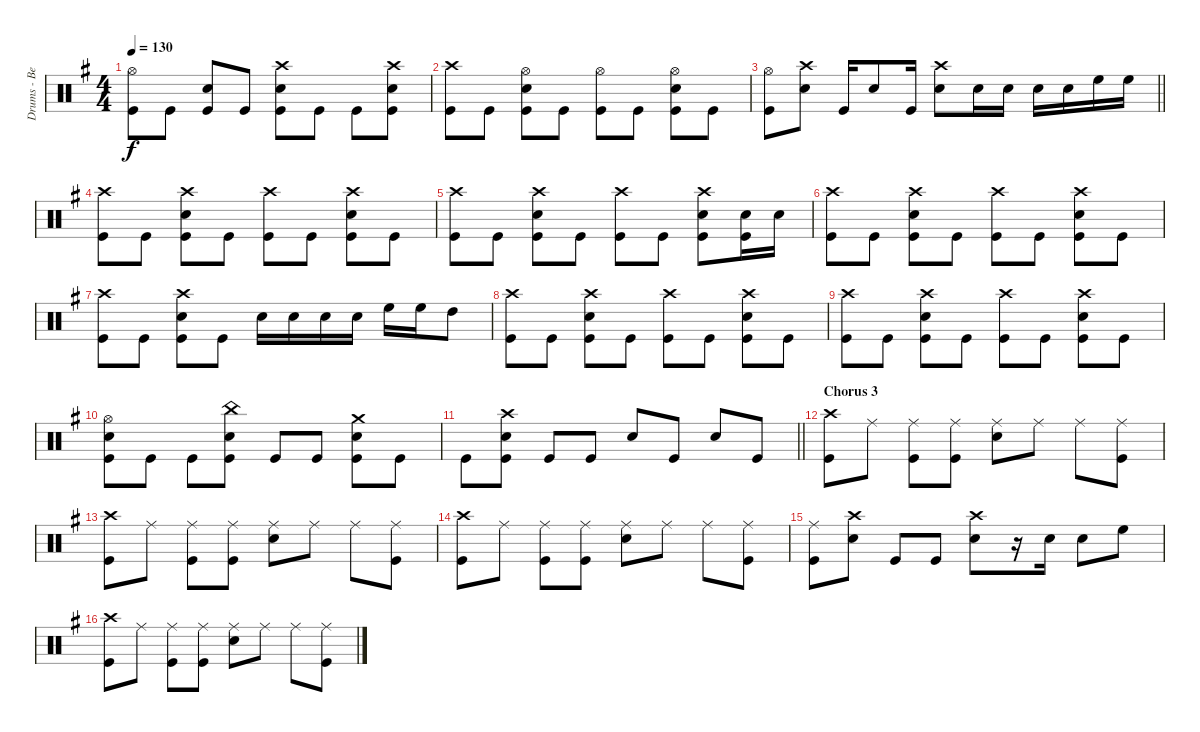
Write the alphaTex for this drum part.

\track ("Drums - Ben Johnston" "Drums - Be") {instrument percussion}
\staff {score}
\articulation defaults
\ts (4 4)
\tempo 130
\clef neutral
\ks g
("Hi-Hat (open)" "Kick (hit)").8{dy f} "Kick (hit)".8 ("Snare (hit) 2" "Kick (hit)").8 "Kick (hit)".8 ("Crash high (hit)" "Snare (hit) 2" "Kick (hit)").8 "Kick (hit)".8 "Kick (hit)".8 ("Crash high (hit)" "Snare (hit) 2" "Kick (hit)").8 |
("Crash high (hit)" "Kick (hit)").8 "Kick (hit)".8 ("Hi-Hat (open)" "Snare (hit) 2" "Kick (hit)").8 "Kick (hit)".8 ("Hi-Hat (open)" "Kick (hit)").8 "Kick (hit)".8 ("Hi-Hat (open)" "Snare (hit) 2" "Kick (hit)").8 "Kick (hit)".8 |
\barLineRight lightlight
("Hi-Hat (open)" "Kick (hit)").8 ("Crash high (hit)" "Snare (hit) 2").8 "Kick (hit)".16 "Snare (hit) 2".8 "Kick (hit)".16 ("Crash high (hit)" "Snare (hit) 2").8 "Snare (hit) 2".16 "Snare (hit) 2".16 "Snare (hit) 2".16 "Snare (hit) 2".16 "High Floor Tom (hit)".16 "High Floor Tom (hit)".16 |
("Crash high (hit)" "Kick (hit)").8 "Kick (hit)".8 ("Crash high (hit)" "Snare (hit) 2" "Kick (hit)").8 "Kick (hit)".8 ("Crash high (hit)" "Kick (hit)").8 "Kick (hit)".8 ("Crash high (hit)" "Snare (hit) 2" "Kick (hit)").8 "Kick (hit)".8 |
("Crash high (hit)" "Kick (hit)").8 "Kick (hit)".8 ("Crash high (hit)" "Snare (hit) 2" "Kick (hit)").8 "Kick (hit)".8 ("Crash high (hit)" "Kick (hit)").8 "Kick (hit)".8 ("Crash high (hit)" "Snare (hit) 2" "Kick (hit)").8 ("Snare (hit) 2" "Kick (hit)").16 "Snare (hit) 2".16 |
("Crash high (hit)" "Kick (hit)").8 "Kick (hit)".8 ("Crash high (hit)" "Snare (hit) 2" "Kick (hit)").8 "Kick (hit)".8 ("Crash high (hit)" "Kick (hit)").8 "Kick (hit)".8 ("Crash high (hit)" "Snare (hit) 2" "Kick (hit)").8 "Kick (hit)".8 |
("Crash high (hit)" "Kick (hit)").8 "Kick (hit)".8 ("Crash high (hit)" "Snare (hit) 2" "Kick (hit)").8 "Kick (hit)".8 "Snare (hit) 2".16 "Snare (hit) 2".16 "Snare (hit) 2".16 "Snare (hit) 2".16 "High Floor Tom (hit)".16 "High Floor Tom (hit)".16 "High Tom (hit)".8 |
("Crash high (hit)" "Kick (hit)").8 "Kick (hit)".8 ("Crash high (hit)" "Snare (hit) 2" "Kick (hit)").8 "Kick (hit)".8 ("Crash high (hit)" "Kick (hit)").8 "Kick (hit)".8 ("Crash high (hit)" "Snare (hit) 2" "Kick (hit)").8 "Kick (hit)".8 |
("Crash high (hit)" "Kick (hit)").8 "Kick (hit)".8 ("Crash high (hit)" "Snare (hit) 2" "Kick (hit)").8 "Kick (hit)".8 ("Crash high (hit)" "Kick (hit)").8 "Kick (hit)".8 ("Crash high (hit)" "Snare (hit) 2" "Kick (hit)").8 "Kick (hit)".8 |
("Hi-Hat (open)" "Snare (hit) 2" "Kick (hit)").8 "Kick (hit)".8 "Kick (hit)".8 ("China (hit)" "Snare (hit) 2" "Kick (hit)").8 "Kick (hit)".8 "Kick (hit)".8 ("Crash medium (hit)" "Snare (hit) 2" "Kick (hit)").8 "Kick (hit)".8 |
\barLineRight lightlight "Kick (hit)".8
("Crash high (hit)" "Snare (hit) 2" "Kick (hit)").8 "Kick (hit)".8 "Kick (hit)".8 "Snare (hit) 2".8 "Kick (hit)".8 "Snare (hit) 2".8 "Kick (hit)".8 |
\section ("" "Chorus 3")
("Crash high (hit)" "Kick (hit)").8 "Ride (middle)".8 ("Ride (middle)" "Kick (hit)").8 ("Ride (middle)" "Kick (hit)").8 ("Ride (middle)" "Snare (hit) 2").8 "Ride (middle)".8 "Ride (middle)".8 ("Ride (middle)" "Kick (hit)").8 |
("Crash high (hit)" "Kick (hit)").8 "Ride (middle)".8 ("Ride (middle)" "Kick (hit)").8 ("Ride (middle)" "Kick (hit)").8 ("Ride (middle)" "Snare (hit) 2").8 "Ride (middle)".8 "Ride (middle)".8 ("Ride (middle)" "Kick (hit)").8 |
("Crash high (hit)" "Kick (hit)").8 "Ride (middle)".8 ("Ride (middle)" "Kick (hit)").8 ("Ride (middle)" "Kick (hit)").8 ("Ride (middle)" "Snare (hit) 2").8 "Ride (middle)".8 "Ride (middle)".8 ("Ride (middle)" "Kick (hit)").8 |
("Ride (middle)" "Kick (hit)").8 ("Crash high (hit)" "Snare (hit) 2").8 "Kick (hit)".8 "Kick (hit)".8 ("Crash high (hit)" "Snare (hit) 2").8 r.16 "Snare (hit) 2".16 "Snare (hit) 2".8 "High Floor Tom (hit)".8 |
("Crash high (hit)" "Kick (hit)").8 "Ride (middle)".8 ("Ride (middle)" "Kick (hit)").8 ("Ride (middle)" "Kick (hit)").8 ("Ride (middle)" "Snare (hit) 2").8 "Ride (middle)".8 "Ride (middle)".8 ("Ride (middle)" "Kick (hit)").8
